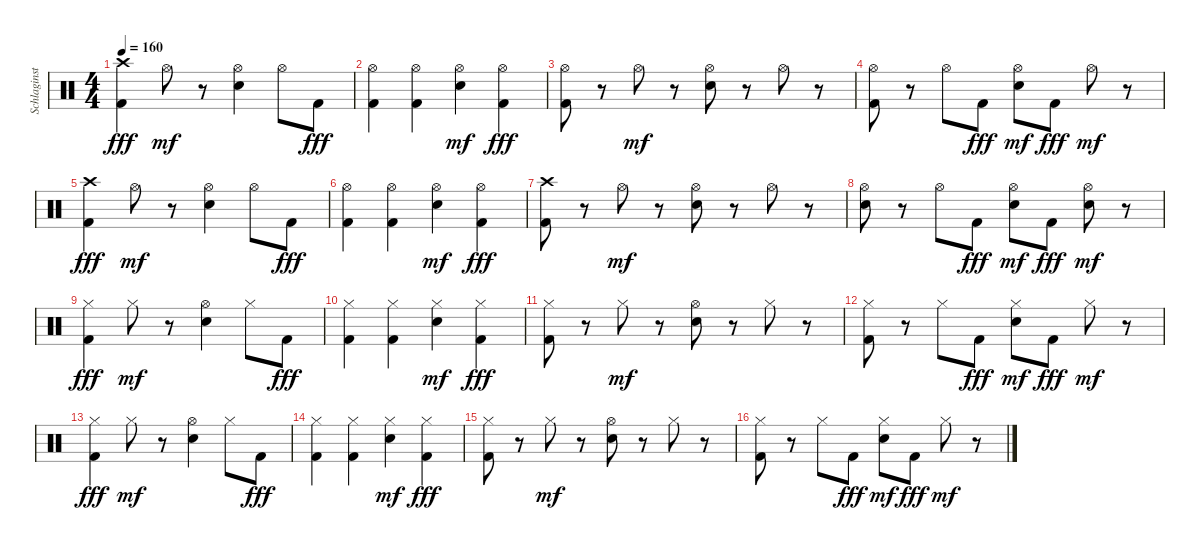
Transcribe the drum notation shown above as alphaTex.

\track ("Schlaginstrumente - Auswahl" "Schlaginst") {instrument percussion}
\staff {score}
\articulation defaults
\ts (4 4)
\tempo 160
\clef neutral
\ks c
("Crash high (hit)" "Kick (hit) 2").4{dy fff} "Hi-Hat (open)".8{dy mf} r.8 ("Hi-Hat (open)" "Electric Snare (hit)").4 "Hi-Hat (open)".8 "Kick (hit) 2".8{dy fff} |
("Hi-Hat (open)" "Kick (hit) 2").4 ("Hi-Hat (open)" "Kick (hit) 2").4 ("Hi-Hat (open)" "Electric Snare (hit)").4{dy mf} ("Hi-Hat (open)" "Kick (hit) 2").4{dy fff} |
("Hi-Hat (open)" "Kick (hit) 2").8 r.8 "Hi-Hat (open)".8{dy mf} r.8 ("Hi-Hat (open)" "Electric Snare (hit)").8 r.8 "Hi-Hat (open)".8 r.8 |
("Hi-Hat (open)" "Kick (hit) 2").8 r.8 "Hi-Hat (open)".8 "Kick (hit) 2".8{dy fff} ("Hi-Hat (open)" "Electric Snare (hit)").8{dy mf} "Kick (hit) 2".8{dy fff} "Hi-Hat (open)".8{dy mf} r.8 |
("Crash high (hit)" "Kick (hit) 2").4{dy fff} "Hi-Hat (open)".8{dy mf} r.8 ("Hi-Hat (open)" "Electric Snare (hit)").4 "Hi-Hat (open)".8 "Kick (hit) 2".8{dy fff} |
("Hi-Hat (open)" "Kick (hit) 2").4 ("Hi-Hat (open)" "Kick (hit) 2").4 ("Hi-Hat (open)" "Electric Snare (hit)").4{dy mf} ("Hi-Hat (open)" "Kick (hit) 2").4{dy fff} |
("Crash high (hit)" "Kick (hit) 2").8 r.8 "Hi-Hat (open)".8{dy mf} r.8 ("Hi-Hat (open)" "Electric Snare (hit)").8 r.8 "Hi-Hat (open)".8 r.8 |
("Hi-Hat (open)" "Electric Snare (hit)").8 r.8 "Hi-Hat (open)".8 "Kick (hit) 2".8{dy fff} ("Hi-Hat (open)" "Electric Snare (hit)").8{dy mf} "Kick (hit) 2".8{dy fff} ("Hi-Hat (open)" "Electric Snare (hit)").8{dy mf} r.8 |
("Hi-Hat (closed)" "Kick (hit) 2").4{dy fff} "Hi-Hat (closed)".8{dy mf} r.8 ("Hi-Hat (open)" "Electric Snare (hit)").4 "Hi-Hat (closed)".8 "Kick (hit) 2".8{dy fff} |
("Hi-Hat (closed)" "Kick (hit) 2").4 ("Hi-Hat (closed)" "Kick (hit) 2").4 ("Hi-Hat (closed)" "Electric Snare (hit)").4{dy mf} ("Hi-Hat (closed)" "Kick (hit) 2").4{dy fff} |
("Hi-Hat (closed)" "Kick (hit) 2").8 r.8 "Hi-Hat (closed)".8{dy mf} r.8 ("Hi-Hat (open)" "Electric Snare (hit)").8 r.8 "Hi-Hat (closed)".8 r.8 |
("Hi-Hat (closed)" "Kick (hit) 2").8 r.8 "Hi-Hat (closed)".8 "Kick (hit) 2".8{dy fff} ("Hi-Hat (closed)" "Electric Snare (hit)").8{dy mf} "Kick (hit) 2".8{dy fff} "Hi-Hat (closed)".8{dy mf} r.8 |
("Hi-Hat (closed)" "Kick (hit) 2").4{dy fff} "Hi-Hat (closed)".8{dy mf} r.8 ("Hi-Hat (open)" "Electric Snare (hit)").4 "Hi-Hat (closed)".8 "Kick (hit) 2".8{dy fff} |
("Hi-Hat (closed)" "Kick (hit) 2").4 ("Hi-Hat (closed)" "Kick (hit) 2").4 ("Hi-Hat (closed)" "Electric Snare (hit)").4{dy mf} ("Hi-Hat (closed)" "Kick (hit) 2").4{dy fff} |
("Hi-Hat (closed)" "Kick (hit) 2").8 r.8 "Hi-Hat (closed)".8{dy mf} r.8 ("Hi-Hat (open)" "Electric Snare (hit)").8 r.8 "Hi-Hat (closed)".8 r.8 |
("Hi-Hat (closed)" "Kick (hit) 2").8 r.8 "Hi-Hat (closed)".8 "Kick (hit) 2".8{dy fff} ("Hi-Hat (closed)" "Electric Snare (hit)").8{dy mf} "Kick (hit) 2".8{dy fff} "Hi-Hat (closed)".8{dy mf} r.8
